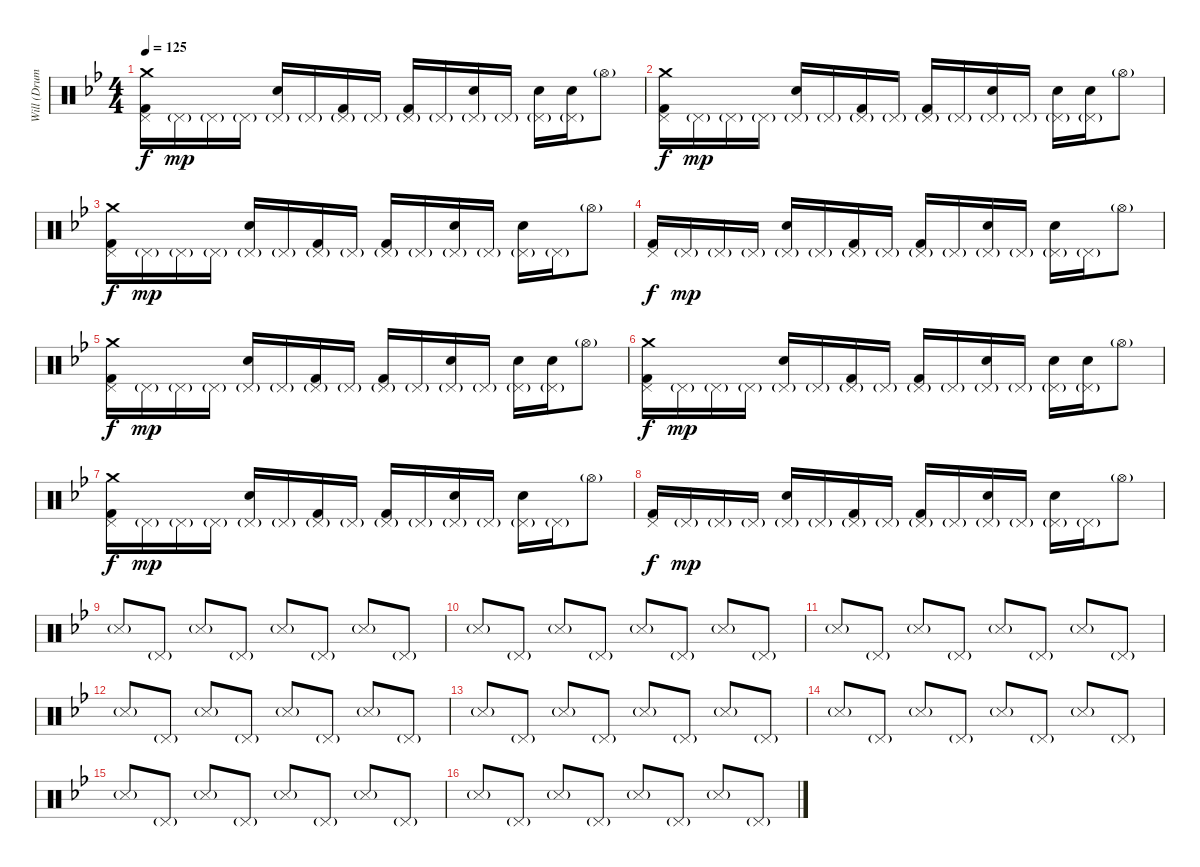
\track ("Will (Drums)" "Will (Drum") {instrument percussion}
\staff {score}
\articulation defaults
\ts (4 4)
\tempo 125
\clef neutral
\ks bb
("Kick (hit) 2" "Pedal Hi-Hat (hit)" "Crash medium (hit)").16{dy f} "Pedal Hi-Hat (hit)"{g}.16{dy mp} "Pedal Hi-Hat (hit)"{g}.16 "Pedal Hi-Hat (hit)"{g}.16 ("Snare (hit) 2" "Pedal Hi-Hat (hit)"{g}).16 "Pedal Hi-Hat (hit)"{g}.16 ("Kick (hit) 2" "Pedal Hi-Hat (hit)"{g}).16 "Pedal Hi-Hat (hit)"{g}.16 ("Kick (hit) 2" "Pedal Hi-Hat (hit)"{g}).16 "Pedal Hi-Hat (hit)"{g}.16 ("Snare (hit) 2" "Pedal Hi-Hat (hit)"{g}).16 "Pedal Hi-Hat (hit)"{g}.16 ("Snare (hit) 2" "Pedal Hi-Hat (hit)"{g}).16 ("Snare (hit) 2" "Pedal Hi-Hat (hit)"{g}).16 "Hi-Hat (open)"{g}.8 |
("Kick (hit) 2" "Pedal Hi-Hat (hit)" "Crash medium (hit)").16{dy f} "Pedal Hi-Hat (hit)"{g}.16{dy mp} "Pedal Hi-Hat (hit)"{g}.16 "Pedal Hi-Hat (hit)"{g}.16 ("Snare (hit) 2" "Pedal Hi-Hat (hit)"{g}).16 "Pedal Hi-Hat (hit)"{g}.16 ("Kick (hit) 2" "Pedal Hi-Hat (hit)"{g}).16 "Pedal Hi-Hat (hit)"{g}.16 ("Kick (hit) 2" "Pedal Hi-Hat (hit)"{g}).16 "Pedal Hi-Hat (hit)"{g}.16 ("Snare (hit) 2" "Pedal Hi-Hat (hit)"{g}).16 "Pedal Hi-Hat (hit)"{g}.16 ("Snare (hit) 2" "Pedal Hi-Hat (hit)"{g}).16 ("Snare (hit) 2" "Pedal Hi-Hat (hit)"{g}).16 "Hi-Hat (open)"{g}.8 |
("Kick (hit) 2" "Pedal Hi-Hat (hit)" "Crash medium (hit)").16{dy f} "Pedal Hi-Hat (hit)"{g}.16{dy mp} "Pedal Hi-Hat (hit)"{g}.16 "Pedal Hi-Hat (hit)"{g}.16 ("Snare (hit) 2" "Pedal Hi-Hat (hit)"{g}).16 "Pedal Hi-Hat (hit)"{g}.16 ("Kick (hit) 2" "Pedal Hi-Hat (hit)"{g}).16 "Pedal Hi-Hat (hit)"{g}.16 ("Kick (hit) 2" "Pedal Hi-Hat (hit)"{g}).16 "Pedal Hi-Hat (hit)"{g}.16 ("Snare (hit) 2" "Pedal Hi-Hat (hit)"{g}).16 "Pedal Hi-Hat (hit)"{g}.16 ("Snare (hit) 2" "Pedal Hi-Hat (hit)"{g}).16 "Pedal Hi-Hat (hit)"{g}.16 "Hi-Hat (open)"{g}.8 |
("Kick (hit) 2" "Pedal Hi-Hat (hit)").16{dy f} "Pedal Hi-Hat (hit)"{g}.16{dy mp} "Pedal Hi-Hat (hit)"{g}.16 "Pedal Hi-Hat (hit)"{g}.16 ("Snare (hit) 2" "Pedal Hi-Hat (hit)"{g}).16 "Pedal Hi-Hat (hit)"{g}.16 ("Kick (hit) 2" "Pedal Hi-Hat (hit)"{g}).16 "Pedal Hi-Hat (hit)"{g}.16 ("Kick (hit) 2" "Pedal Hi-Hat (hit)"{g}).16 "Pedal Hi-Hat (hit)"{g}.16 ("Snare (hit) 2" "Pedal Hi-Hat (hit)"{g}).16 "Pedal Hi-Hat (hit)"{g}.16 ("Snare (hit) 2" "Pedal Hi-Hat (hit)"{g}).16 "Pedal Hi-Hat (hit)"{g}.16 "Hi-Hat (open)"{g}.8 |
("Kick (hit) 2" "Pedal Hi-Hat (hit)" "Crash medium (hit)").16{dy f} "Pedal Hi-Hat (hit)"{g}.16{dy mp} "Pedal Hi-Hat (hit)"{g}.16 "Pedal Hi-Hat (hit)"{g}.16 ("Snare (hit) 2" "Pedal Hi-Hat (hit)"{g}).16 "Pedal Hi-Hat (hit)"{g}.16 ("Kick (hit) 2" "Pedal Hi-Hat (hit)"{g}).16 "Pedal Hi-Hat (hit)"{g}.16 ("Kick (hit) 2" "Pedal Hi-Hat (hit)"{g}).16 "Pedal Hi-Hat (hit)"{g}.16 ("Snare (hit) 2" "Pedal Hi-Hat (hit)"{g}).16 "Pedal Hi-Hat (hit)"{g}.16 ("Snare (hit) 2" "Pedal Hi-Hat (hit)"{g}).16 ("Snare (hit) 2" "Pedal Hi-Hat (hit)"{g}).16 "Hi-Hat (open)"{g}.8 |
("Kick (hit) 2" "Pedal Hi-Hat (hit)" "Crash medium (hit)").16{dy f} "Pedal Hi-Hat (hit)"{g}.16{dy mp} "Pedal Hi-Hat (hit)"{g}.16 "Pedal Hi-Hat (hit)"{g}.16 ("Snare (hit) 2" "Pedal Hi-Hat (hit)"{g}).16 "Pedal Hi-Hat (hit)"{g}.16 ("Kick (hit) 2" "Pedal Hi-Hat (hit)"{g}).16 "Pedal Hi-Hat (hit)"{g}.16 ("Kick (hit) 2" "Pedal Hi-Hat (hit)"{g}).16 "Pedal Hi-Hat (hit)"{g}.16 ("Snare (hit) 2" "Pedal Hi-Hat (hit)"{g}).16 "Pedal Hi-Hat (hit)"{g}.16 ("Snare (hit) 2" "Pedal Hi-Hat (hit)"{g}).16 ("Snare (hit) 2" "Pedal Hi-Hat (hit)"{g}).16 "Hi-Hat (open)"{g}.8 |
("Kick (hit) 2" "Pedal Hi-Hat (hit)" "Crash medium (hit)").16{dy f} "Pedal Hi-Hat (hit)"{g}.16{dy mp} "Pedal Hi-Hat (hit)"{g}.16 "Pedal Hi-Hat (hit)"{g}.16 ("Snare (hit) 2" "Pedal Hi-Hat (hit)"{g}).16 "Pedal Hi-Hat (hit)"{g}.16 ("Kick (hit) 2" "Pedal Hi-Hat (hit)"{g}).16 "Pedal Hi-Hat (hit)"{g}.16 ("Kick (hit) 2" "Pedal Hi-Hat (hit)"{g}).16 "Pedal Hi-Hat (hit)"{g}.16 ("Snare (hit) 2" "Pedal Hi-Hat (hit)"{g}).16 "Pedal Hi-Hat (hit)"{g}.16 ("Snare (hit) 2" "Pedal Hi-Hat (hit)"{g}).16 "Pedal Hi-Hat (hit)"{g}.16 "Hi-Hat (open)"{g}.8 |
("Kick (hit) 2" "Pedal Hi-Hat (hit)").16{dy f} "Pedal Hi-Hat (hit)"{g}.16{dy mp} "Pedal Hi-Hat (hit)"{g}.16 "Pedal Hi-Hat (hit)"{g}.16 ("Snare (hit) 2" "Pedal Hi-Hat (hit)"{g}).16 "Pedal Hi-Hat (hit)"{g}.16 ("Kick (hit) 2" "Pedal Hi-Hat (hit)"{g}).16 "Pedal Hi-Hat (hit)"{g}.16 ("Kick (hit) 2" "Pedal Hi-Hat (hit)"{g}).16 "Pedal Hi-Hat (hit)"{g}.16 ("Snare (hit) 2" "Pedal Hi-Hat (hit)"{g}).16 "Pedal Hi-Hat (hit)"{g}.16 ("Snare (hit) 2" "Pedal Hi-Hat (hit)"{g}).16 "Pedal Hi-Hat (hit)"{g}.16 "Hi-Hat (open)"{g}.8 |
"Snare (side stick) 3"{g}.8 "Pedal Hi-Hat (hit)"{g}.8 "Snare (side stick) 3"{g}.8 "Pedal Hi-Hat (hit)"{g}.8 "Snare (side stick) 3"{g}.8 "Pedal Hi-Hat (hit)"{g}.8 "Snare (side stick) 3"{g}.8 "Pedal Hi-Hat (hit)"{g}.8 |
"Snare (side stick) 3"{g}.8 "Pedal Hi-Hat (hit)"{g}.8 "Snare (side stick) 3"{g}.8 "Pedal Hi-Hat (hit)"{g}.8 "Snare (side stick) 3"{g}.8 "Pedal Hi-Hat (hit)"{g}.8 "Snare (side stick) 3"{g}.8 "Pedal Hi-Hat (hit)"{g}.8 |
"Snare (side stick) 3"{g}.8 "Pedal Hi-Hat (hit)"{g}.8 "Snare (side stick) 3"{g}.8 "Pedal Hi-Hat (hit)"{g}.8 "Snare (side stick) 3"{g}.8 "Pedal Hi-Hat (hit)"{g}.8 "Snare (side stick) 3"{g}.8 "Pedal Hi-Hat (hit)"{g}.8 |
"Snare (side stick) 3"{g}.8 "Pedal Hi-Hat (hit)"{g}.8 "Snare (side stick) 3"{g}.8 "Pedal Hi-Hat (hit)"{g}.8 "Snare (side stick) 3"{g}.8 "Pedal Hi-Hat (hit)"{g}.8 "Snare (side stick) 3"{g}.8 "Pedal Hi-Hat (hit)"{g}.8 |
"Snare (side stick) 3"{g}.8 "Pedal Hi-Hat (hit)"{g}.8 "Snare (side stick) 3"{g}.8 "Pedal Hi-Hat (hit)"{g}.8 "Snare (side stick) 3"{g}.8 "Pedal Hi-Hat (hit)"{g}.8 "Snare (side stick) 3"{g}.8 "Pedal Hi-Hat (hit)"{g}.8 |
"Snare (side stick) 3"{g}.8 "Pedal Hi-Hat (hit)"{g}.8 "Snare (side stick) 3"{g}.8 "Pedal Hi-Hat (hit)"{g}.8 "Snare (side stick) 3"{g}.8 "Pedal Hi-Hat (hit)"{g}.8 "Snare (side stick) 3"{g}.8 "Pedal Hi-Hat (hit)"{g}.8 |
"Snare (side stick) 3"{g}.8{volume 0} "Pedal Hi-Hat (hit)"{g}.8 "Snare (side stick) 3"{g}.8 "Pedal Hi-Hat (hit)"{g}.8 "Snare (side stick) 3"{g}.8 "Pedal Hi-Hat (hit)"{g}.8 "Snare (side stick) 3"{g}.8 "Pedal Hi-Hat (hit)"{g}.8 |
"Snare (side stick) 3"{g}.8 "Pedal Hi-Hat (hit)"{g}.8 "Snare (side stick) 3"{g}.8 "Pedal Hi-Hat (hit)"{g}.8 "Snare (side stick) 3"{g}.8 "Pedal Hi-Hat (hit)"{g}.8 "Snare (side stick) 3"{g}.8 "Pedal Hi-Hat (hit)"{g}.8
